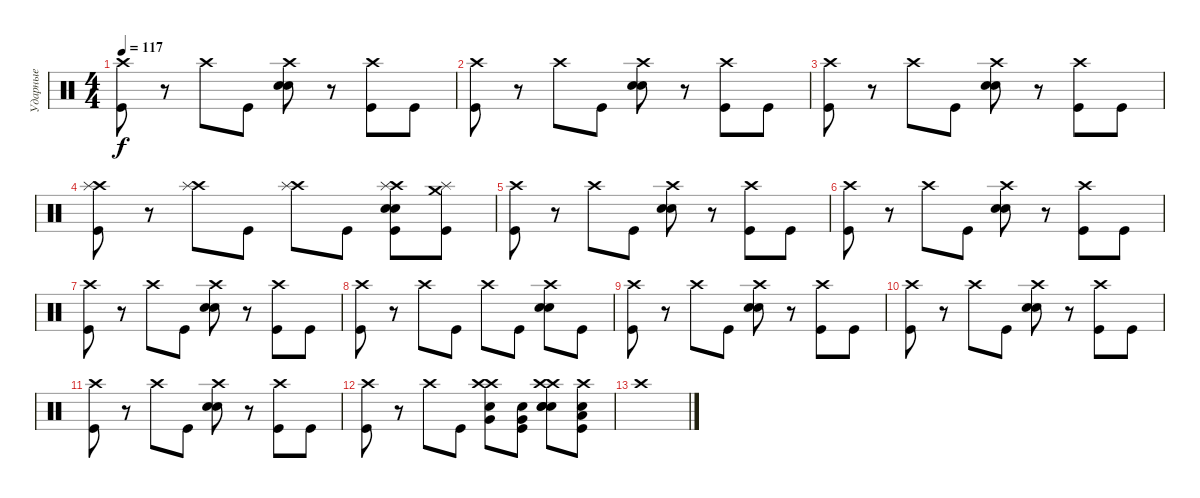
\track ("Ударные" "Ударные") {instrument percussion}
\staff {score}
\articulation defaults
\ts (4 4)
\tempo 117
\clef neutral
\ks c
("Crash high (hit)" "Kick (hit)").8{dy f} r.8 "Crash high (hit)".8 "Kick (hit)".8 ("Crash high (hit)" "Snare (hit) 2" "Snare (hit) 2").8 r.8 ("Crash high (hit)" "Kick (hit)").8 "Kick (hit)".8 |
("Crash high (hit)" "Kick (hit)").8 r.8 "Crash high (hit)".8 "Kick (hit)".8 ("Crash high (hit)" "Snare (hit) 2" "Snare (hit) 2").8 r.8 ("Crash high (hit)" "Kick (hit)").8 "Kick (hit)".8 |
("Crash high (hit)" "Kick (hit)").8 r.8 "Crash high (hit)".8 "Kick (hit)".8 ("Crash high (hit)" "Snare (hit) 2" "Snare (hit) 2").8 r.8 ("Crash high (hit)" "Kick (hit)").8 "Kick (hit)".8 |
("Crash high (hit)" "Splash (hit)" "Kick (hit)").8 r.8 ("Crash high (hit)" "Splash (hit)").8 "Kick (hit)".8 ("Crash high (hit)" "Splash (hit)").8 "Kick (hit)".8 ("Crash high (hit)" "Splash (hit)" "Snare (hit) 2" "Snare (hit) 2" "Kick (hit)").8 ("Crash medium (hit)" "Splash (hit)" "Kick (hit)").8 |
("Crash high (hit)" "Kick (hit)").8 r.8 "Crash high (hit)".8 "Kick (hit)".8 ("Crash high (hit)" "Snare (hit) 2" "Snare (hit) 2").8 r.8 ("Crash high (hit)" "Kick (hit)").8 "Kick (hit)".8 |
("Crash high (hit)" "Kick (hit)").8 r.8 "Crash high (hit)".8 "Kick (hit)".8 ("Crash high (hit)" "Snare (hit) 2" "Snare (hit) 2").8 r.8 ("Crash high (hit)" "Kick (hit)").8 "Kick (hit)".8 |
("Crash high (hit)" "Kick (hit)").8 r.8 "Crash high (hit)".8 "Kick (hit)".8 ("Crash high (hit)" "Snare (hit) 2" "Snare (hit) 2").8 r.8 ("Crash high (hit)" "Kick (hit)").8 "Kick (hit)".8 |
("Crash high (hit)" "Kick (hit)").8 r.8 "Crash high (hit)".8 "Kick (hit)".8 "Crash high (hit)".8 "Kick (hit)".8 ("Crash high (hit)" "Snare (hit) 2" "Snare (hit) 2").8 "Kick (hit)".8 |
("Crash high (hit)" "Kick (hit)").8 r.8 "Crash high (hit)".8 "Kick (hit)".8 ("Crash high (hit)" "Snare (hit) 2" "Snare (hit) 2").8 r.8 ("Crash high (hit)" "Kick (hit)").8 "Kick (hit)".8 |
("Crash high (hit)" "Kick (hit)").8 r.8 "Crash high (hit)".8 "Kick (hit)".8 ("Crash high (hit)" "Snare (hit) 2" "Snare (hit) 2").8 r.8 ("Crash high (hit)" "Kick (hit)").8 "Kick (hit)".8 |
("Crash high (hit)" "Kick (hit)").8 r.8 "Crash high (hit)".8 "Kick (hit)".8 ("Crash high (hit)" "Snare (hit) 2" "Snare (hit) 2").8 r.8 ("Crash high (hit)" "Kick (hit)").8 "Kick (hit)".8 |
("Crash high (hit)" "Kick (hit)").8 r.8 "Crash high (hit)".8 "Kick (hit)".8 ("Crash high (hit)" "Crash high (hit)" "Snare (hit) 2" "Very Low Tom (hit)").8 ("Snare (hit) 2" "Very Low Tom (hit)" "Kick (hit)").8 ("Crash high (hit)" "Crash high (hit)" "Snare (hit) 2" "Snare (hit) 2" "Snare (hit) 2").8 ("Crash high (hit)" "Snare (hit) 2" "Low Floor Tom (hit)" "Kick (hit)").8 |
"Crash high (hit)".1
